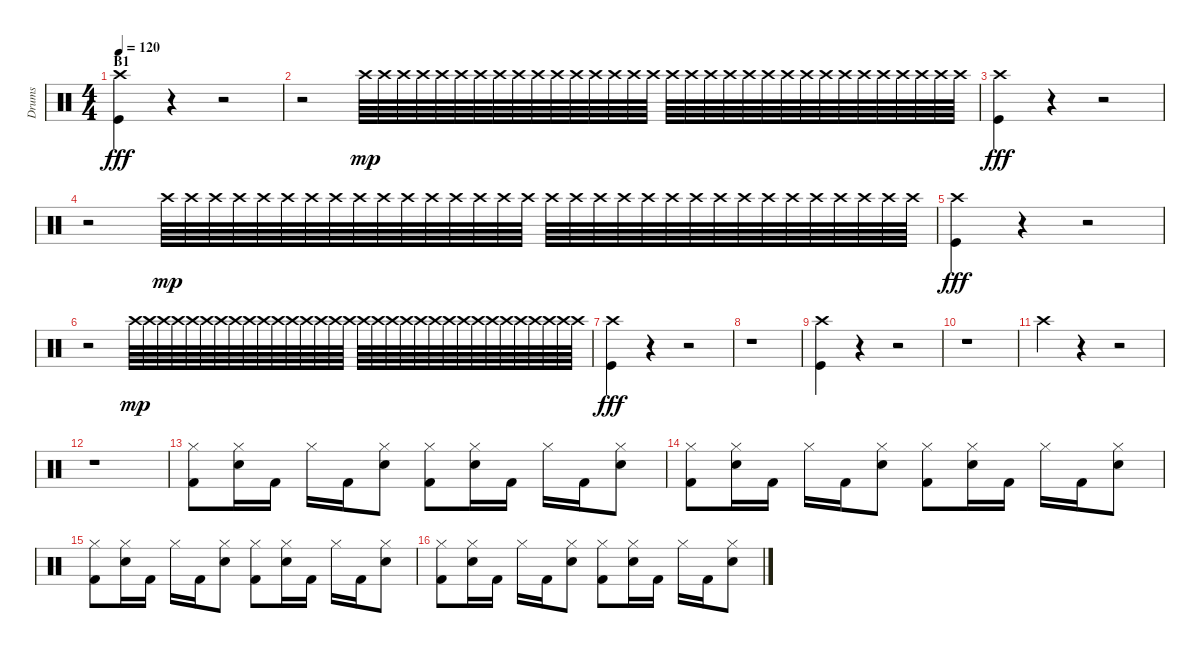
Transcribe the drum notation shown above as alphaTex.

\track ("Drums" "Drums") {instrument percussion}
\staff {score}
\articulation defaults
\ts (4 4)
\section ("" "B1")
\tempo 120
\clef neutral
\ks c
("Crash high (hit)" "Kick (hit)").4{dy fff} r.4 r.2 |
r.2 "Crash high (hit)".64{dy mp} "Crash high (hit)".64 "Crash high (hit)".64 "Crash high (hit)".64 "Crash high (hit)".64 "Crash high (hit)".64 "Crash high (hit)".64 "Crash high (hit)".64 "Crash high (hit)".64 "Crash high (hit)".64 "Crash high (hit)".64 "Crash high (hit)".64 "Crash high (hit)".64 "Crash high (hit)".64 "Crash high (hit)".64 "Crash high (hit)".64 "Crash high (hit)".64 "Crash high (hit)".64 "Crash high (hit)".64 "Crash high (hit)".64 "Crash high (hit)".64 "Crash high (hit)".64 "Crash high (hit)".64 "Crash high (hit)".64 "Crash high (hit)".64 "Crash high (hit)".64 "Crash high (hit)".64 "Crash high (hit)".64 "Crash high (hit)".64 "Crash high (hit)".64 "Crash high (hit)".64 "Crash high (hit)".64 |
("Crash high (hit)" "Kick (hit)").4{dy fff} r.4 r.2 |
r.2 "Crash high (hit)".64{dy mp} "Crash high (hit)".64 "Crash high (hit)".64 "Crash high (hit)".64 "Crash high (hit)".64 "Crash high (hit)".64 "Crash high (hit)".64 "Crash high (hit)".64 "Crash high (hit)".64 "Crash high (hit)".64 "Crash high (hit)".64 "Crash high (hit)".64 "Crash high (hit)".64 "Crash high (hit)".64 "Crash high (hit)".64 "Crash high (hit)".64 "Crash high (hit)".64 "Crash high (hit)".64 "Crash high (hit)".64 "Crash high (hit)".64 "Crash high (hit)".64 "Crash high (hit)".64 "Crash high (hit)".64 "Crash high (hit)".64 "Crash high (hit)".64 "Crash high (hit)".64 "Crash high (hit)".64 "Crash high (hit)".64 "Crash high (hit)".64 "Crash high (hit)".64 "Crash high (hit)".64 "Crash high (hit)".64 |
("Crash high (hit)" "Kick (hit)").4{dy fff} r.4 r.2 |
r.2 "Crash high (hit)".64{dy mp} "Crash high (hit)".64 "Crash high (hit)".64 "Crash high (hit)".64 "Crash high (hit)".64 "Crash high (hit)".64 "Crash high (hit)".64 "Crash high (hit)".64 "Crash high (hit)".64 "Crash high (hit)".64 "Crash high (hit)".64 "Crash high (hit)".64 "Crash high (hit)".64 "Crash high (hit)".64 "Crash high (hit)".64 "Crash high (hit)".64 "Crash high (hit)".64 "Crash high (hit)".64 "Crash high (hit)".64 "Crash high (hit)".64 "Crash high (hit)".64 "Crash high (hit)".64 "Crash high (hit)".64 "Crash high (hit)".64 "Crash high (hit)".64 "Crash high (hit)".64 "Crash high (hit)".64 "Crash high (hit)".64 "Crash high (hit)".64 "Crash high (hit)".64 "Crash high (hit)".64 "Crash high (hit)".64 |
("Crash high (hit)" "Kick (hit)").4{dy fff} r.4 r.2 |
r.1 |
("Crash high (hit)" "Kick (hit)").4 r.4 r.2 |
r.1 |
"Crash high (hit)".4 r.4 r.2 |
r.1 |
("Hi-Hat (closed)" "Kick (hit) 2").8 ("Hi-Hat (closed)" "Snare (hit) 2").16 "Kick (hit) 2".16 "Hi-Hat (closed)".16 "Kick (hit) 2".16 ("Hi-Hat (closed)" "Snare (hit) 2").8 ("Hi-Hat (closed)" "Kick (hit) 2").8 ("Hi-Hat (closed)" "Snare (hit) 2").16 "Kick (hit) 2".16 "Hi-Hat (closed)".16 "Kick (hit) 2".16 ("Hi-Hat (closed)" "Snare (hit) 2").8 |
("Hi-Hat (closed)" "Kick (hit) 2").8 ("Hi-Hat (closed)" "Snare (hit) 2").16 "Kick (hit) 2".16 "Hi-Hat (closed)".16 "Kick (hit) 2".16 ("Hi-Hat (closed)" "Snare (hit) 2").8 ("Hi-Hat (closed)" "Kick (hit) 2").8 ("Hi-Hat (closed)" "Snare (hit) 2").16 "Kick (hit) 2".16 "Hi-Hat (closed)".16 "Kick (hit) 2".16 ("Hi-Hat (closed)" "Snare (hit) 2").8 |
("Hi-Hat (closed)" "Kick (hit) 2").8 ("Hi-Hat (closed)" "Snare (hit) 2").16 "Kick (hit) 2".16 "Hi-Hat (closed)".16 "Kick (hit) 2".16 ("Hi-Hat (closed)" "Snare (hit) 2").8 ("Hi-Hat (closed)" "Kick (hit) 2").8 ("Hi-Hat (closed)" "Snare (hit) 2").16 "Kick (hit) 2".16 "Hi-Hat (closed)".16 "Kick (hit) 2".16 ("Hi-Hat (closed)" "Snare (hit) 2").8 |
("Hi-Hat (closed)" "Kick (hit) 2").8 ("Hi-Hat (closed)" "Snare (hit) 2").16 "Kick (hit) 2".16 "Hi-Hat (closed)".16 "Kick (hit) 2".16 ("Hi-Hat (closed)" "Snare (hit) 2").8 ("Hi-Hat (closed)" "Kick (hit) 2").8 ("Hi-Hat (closed)" "Snare (hit) 2").16 "Kick (hit) 2".16 "Hi-Hat (closed)".16 "Kick (hit) 2".16 ("Hi-Hat (closed)" "Snare (hit) 2").8
